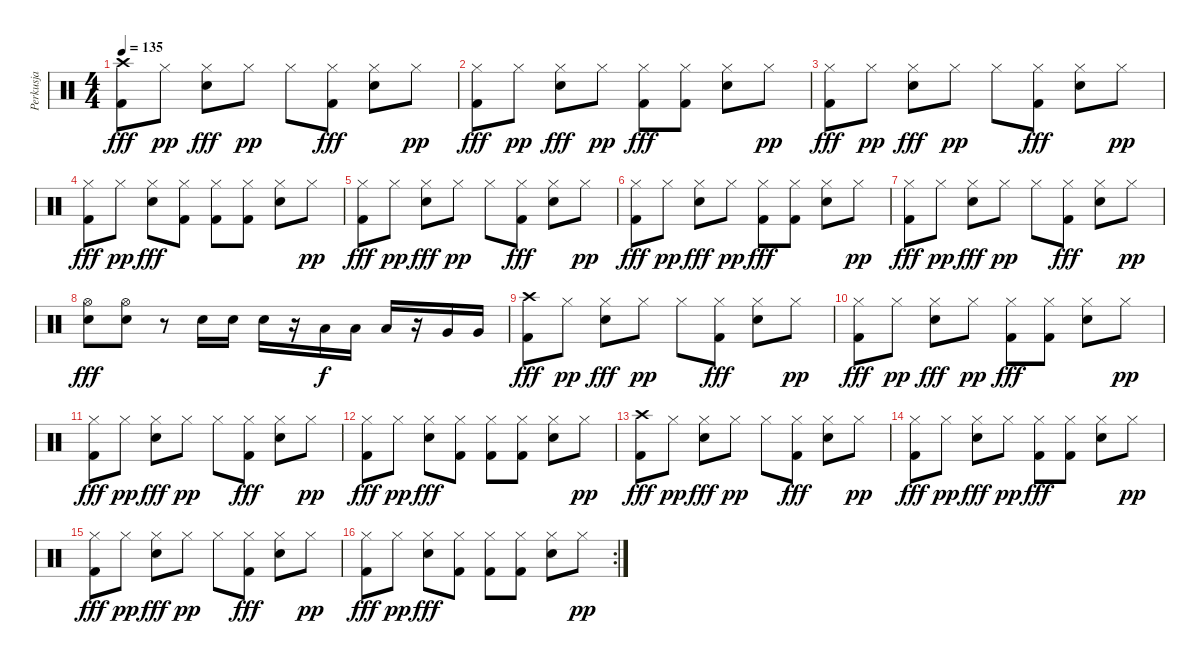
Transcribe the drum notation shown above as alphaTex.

\track ("Perkusja" "Perkusja") {instrument percussion}
\staff {score}
\articulation defaults
\ts (4 4)
\tempo 135
\clef neutral
\ks c
("Crash high (hit)" "Kick (hit) 2").8{dy fff} "Hi-Hat (closed)".8{dy pp} ("Hi-Hat (closed)" "Electric Snare (hit)").8{dy fff} "Hi-Hat (closed)".8{dy pp} "Hi-Hat (closed)".8 ("Hi-Hat (closed)" "Kick (hit) 2").8{dy fff} ("Hi-Hat (closed)" "Electric Snare (hit)").8 "Hi-Hat (closed)".8{dy pp} |
("Hi-Hat (closed)" "Kick (hit) 2").8{dy fff} "Hi-Hat (closed)".8{dy pp} ("Hi-Hat (closed)" "Electric Snare (hit)").8{dy fff} "Hi-Hat (closed)".8{dy pp} ("Hi-Hat (closed)" "Kick (hit) 2").8{dy fff} ("Hi-Hat (closed)" "Kick (hit) 2").8 ("Hi-Hat (closed)" "Electric Snare (hit)").8 "Hi-Hat (closed)".8{dy pp} |
("Hi-Hat (closed)" "Kick (hit) 2").8{dy fff} "Hi-Hat (closed)".8{dy pp} ("Hi-Hat (closed)" "Electric Snare (hit)").8{dy fff} "Hi-Hat (closed)".8{dy pp} "Hi-Hat (closed)".8 ("Hi-Hat (closed)" "Kick (hit) 2").8{dy fff} ("Hi-Hat (closed)" "Electric Snare (hit)").8 "Hi-Hat (closed)".8{dy pp} |
("Hi-Hat (closed)" "Kick (hit) 2").8{dy fff} "Hi-Hat (closed)".8{dy pp} ("Hi-Hat (closed)" "Electric Snare (hit)").8{dy fff} ("Hi-Hat (closed)" "Kick (hit) 2").8 ("Hi-Hat (closed)" "Kick (hit) 2").8 ("Hi-Hat (closed)" "Kick (hit) 2").8 ("Hi-Hat (closed)" "Electric Snare (hit)").8 "Hi-Hat (closed)".8{dy pp} |
("Hi-Hat (closed)" "Kick (hit) 2").8{dy fff} "Hi-Hat (closed)".8{dy pp} ("Hi-Hat (closed)" "Electric Snare (hit)").8{dy fff} "Hi-Hat (closed)".8{dy pp} "Hi-Hat (closed)".8 ("Hi-Hat (closed)" "Kick (hit) 2").8{dy fff} ("Hi-Hat (closed)" "Electric Snare (hit)").8 "Hi-Hat (closed)".8{dy pp} |
("Hi-Hat (closed)" "Kick (hit) 2").8{dy fff} "Hi-Hat (closed)".8{dy pp} ("Hi-Hat (closed)" "Electric Snare (hit)").8{dy fff} "Hi-Hat (closed)".8{dy pp} ("Hi-Hat (closed)" "Kick (hit) 2").8{dy fff} ("Hi-Hat (closed)" "Kick (hit) 2").8 ("Hi-Hat (closed)" "Electric Snare (hit)").8 "Hi-Hat (closed)".8{dy pp} |
("Hi-Hat (closed)" "Kick (hit) 2").8{dy fff} "Hi-Hat (closed)".8{dy pp} ("Hi-Hat (closed)" "Electric Snare (hit)").8{dy fff} "Hi-Hat (closed)".8{dy pp} "Hi-Hat (closed)".8 ("Hi-Hat (closed)" "Kick (hit) 2").8{dy fff} ("Hi-Hat (closed)" "Electric Snare (hit)").8 "Hi-Hat (closed)".8{dy pp} |
("Electric Snare (hit)" "Hi-Hat (open)").8{dy fff} ("Electric Snare (hit)" "Hi-Hat (open)").8 r.8 "Electric Snare (hit)".16 "Electric Snare (hit)".16 "Electric Snare (hit)".16 r.16 "Low Tom (hit)".16{dy f} "Low Tom (hit)".16 "Low Tom (hit)".16 r.16 "Very Low Tom (hit)".16 "Very Low Tom (hit)".16 |
("Crash high (hit)" "Kick (hit) 2").8{dy fff} "Hi-Hat (closed)".8{dy pp} ("Hi-Hat (closed)" "Electric Snare (hit)").8{dy fff} "Hi-Hat (closed)".8{dy pp} "Hi-Hat (closed)".8 ("Hi-Hat (closed)" "Kick (hit) 2").8{dy fff} ("Hi-Hat (closed)" "Electric Snare (hit)").8 "Hi-Hat (closed)".8{dy pp} |
("Hi-Hat (closed)" "Kick (hit) 2").8{dy fff} "Hi-Hat (closed)".8{dy pp} ("Hi-Hat (closed)" "Electric Snare (hit)").8{dy fff} "Hi-Hat (closed)".8{dy pp} ("Hi-Hat (closed)" "Kick (hit) 2").8{dy fff} ("Hi-Hat (closed)" "Kick (hit) 2").8 ("Hi-Hat (closed)" "Electric Snare (hit)").8 "Hi-Hat (closed)".8{dy pp} |
("Hi-Hat (closed)" "Kick (hit) 2").8{dy fff} "Hi-Hat (closed)".8{dy pp} ("Hi-Hat (closed)" "Electric Snare (hit)").8{dy fff} "Hi-Hat (closed)".8{dy pp} "Hi-Hat (closed)".8 ("Hi-Hat (closed)" "Kick (hit) 2").8{dy fff} ("Hi-Hat (closed)" "Electric Snare (hit)").8 "Hi-Hat (closed)".8{dy pp} |
("Hi-Hat (closed)" "Kick (hit) 2").8{dy fff} "Hi-Hat (closed)".8{dy pp} ("Hi-Hat (closed)" "Electric Snare (hit)").8{dy fff} ("Hi-Hat (closed)" "Kick (hit) 2").8 ("Hi-Hat (closed)" "Kick (hit) 2").8 ("Hi-Hat (closed)" "Kick (hit) 2").8 ("Hi-Hat (closed)" "Electric Snare (hit)").8 "Hi-Hat (closed)".8{dy pp} |
("Crash high (hit)" "Kick (hit) 2").8{dy fff} "Hi-Hat (closed)".8{dy pp} ("Hi-Hat (closed)" "Electric Snare (hit)").8{dy fff} "Hi-Hat (closed)".8{dy pp} "Hi-Hat (closed)".8 ("Hi-Hat (closed)" "Kick (hit) 2").8{dy fff} ("Hi-Hat (closed)" "Electric Snare (hit)").8 "Hi-Hat (closed)".8{dy pp} |
("Hi-Hat (closed)" "Kick (hit) 2").8{dy fff} "Hi-Hat (closed)".8{dy pp} ("Hi-Hat (closed)" "Electric Snare (hit)").8{dy fff} "Hi-Hat (closed)".8{dy pp} ("Hi-Hat (closed)" "Kick (hit) 2").8{dy fff} ("Hi-Hat (closed)" "Kick (hit) 2").8 ("Hi-Hat (closed)" "Electric Snare (hit)").8 "Hi-Hat (closed)".8{dy pp} |
("Hi-Hat (closed)" "Kick (hit) 2").8{dy fff} "Hi-Hat (closed)".8{dy pp} ("Hi-Hat (closed)" "Electric Snare (hit)").8{dy fff} "Hi-Hat (closed)".8{dy pp} "Hi-Hat (closed)".8 ("Hi-Hat (closed)" "Kick (hit) 2").8{dy fff} ("Hi-Hat (closed)" "Electric Snare (hit)").8 "Hi-Hat (closed)".8{dy pp} |
\rc 2
("Hi-Hat (closed)" "Kick (hit) 2").8{dy fff} "Hi-Hat (closed)".8{dy pp} ("Hi-Hat (closed)" "Electric Snare (hit)").8{dy fff} ("Hi-Hat (closed)" "Kick (hit) 2").8 ("Hi-Hat (closed)" "Kick (hit) 2").8 ("Hi-Hat (closed)" "Kick (hit) 2").8 ("Hi-Hat (closed)" "Electric Snare (hit)").8 "Hi-Hat (closed)".8{dy pp}
